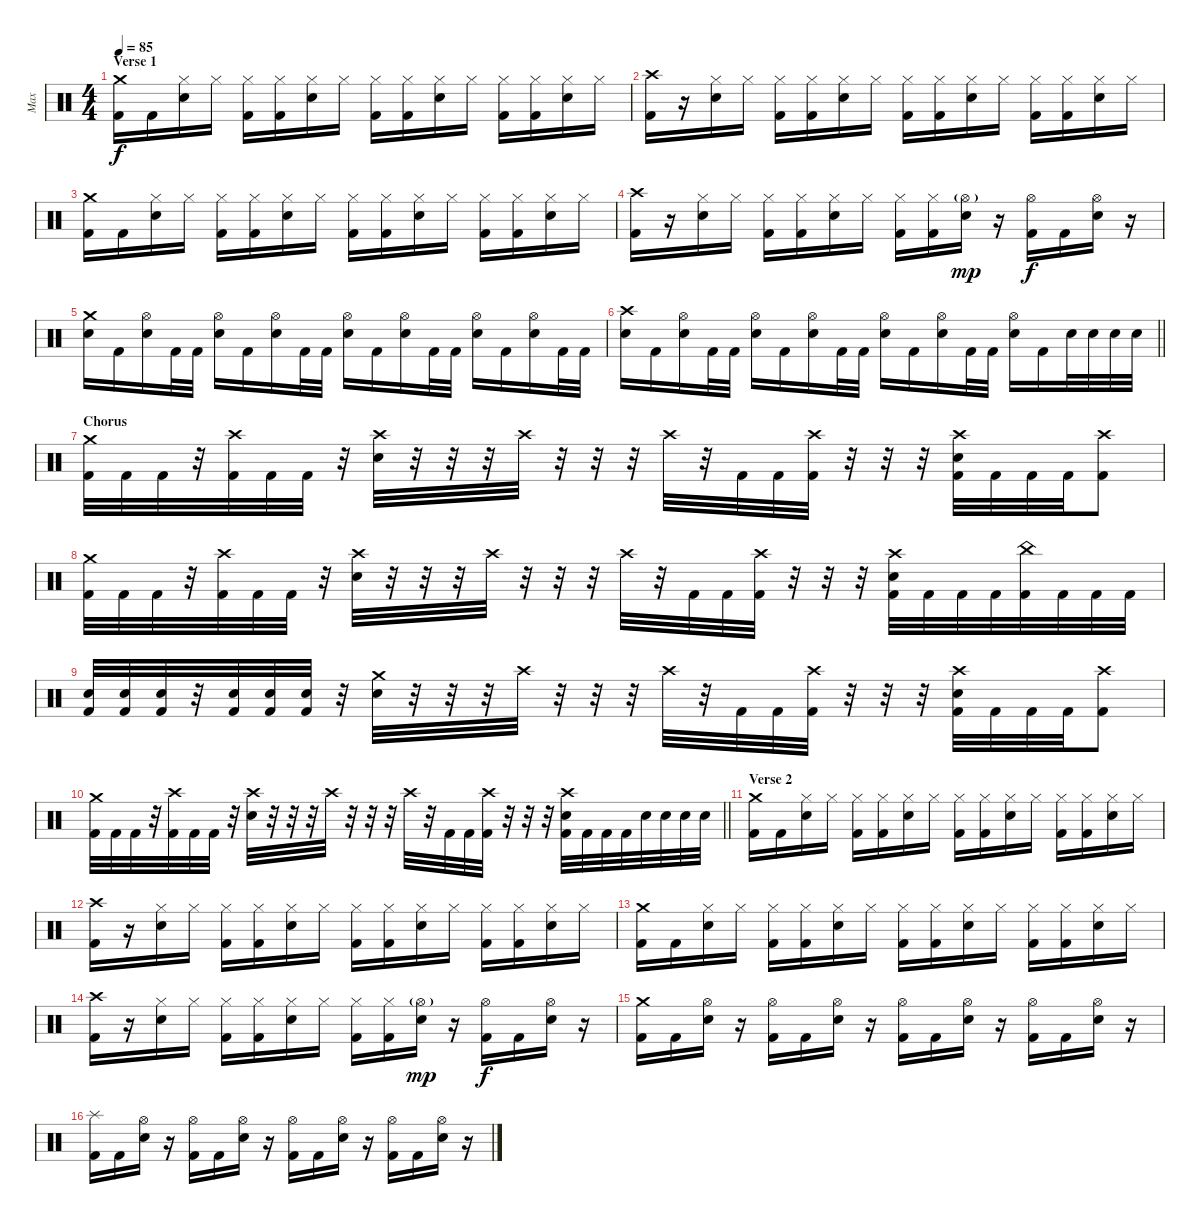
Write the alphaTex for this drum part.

\track ("Max" "Max") {instrument percussion}
\staff {score}
\articulation defaults
\ts (4 4)
\section ("" "Verse 1")
\tempo 85
\clef neutral
\ks c
("Crash medium (hit)" "Kick (hit) 2").16{dy f} "Kick (hit) 2".16 ("Hi-Hat (closed)" "Electric Snare (hit)").16 "Hi-Hat (closed)".16 ("Hi-Hat (closed)" "Kick (hit) 2").16 ("Hi-Hat (closed)" "Kick (hit) 2").16 ("Hi-Hat (closed)" "Electric Snare (hit)").16 "Hi-Hat (closed)".16 ("Hi-Hat (closed)" "Kick (hit) 2").16 ("Hi-Hat (closed)" "Kick (hit) 2").16 ("Hi-Hat (closed)" "Electric Snare (hit)").16 "Hi-Hat (closed)".16 ("Hi-Hat (closed)" "Kick (hit) 2").16 ("Hi-Hat (closed)" "Kick (hit) 2").16 ("Hi-Hat (closed)" "Electric Snare (hit)").16 "Hi-Hat (closed)".16 |
("Crash high (hit)" "Kick (hit) 2").16 r.16 ("Hi-Hat (closed)" "Electric Snare (hit)").16 "Hi-Hat (closed)".16 ("Hi-Hat (closed)" "Kick (hit) 2").16 ("Hi-Hat (closed)" "Kick (hit) 2").16 ("Hi-Hat (closed)" "Electric Snare (hit)").16 "Hi-Hat (closed)".16 ("Hi-Hat (closed)" "Kick (hit) 2").16 ("Hi-Hat (closed)" "Kick (hit) 2").16 ("Hi-Hat (closed)" "Electric Snare (hit)").16 "Hi-Hat (closed)".16 ("Hi-Hat (closed)" "Kick (hit) 2").16 ("Hi-Hat (closed)" "Kick (hit) 2").16 ("Hi-Hat (closed)" "Electric Snare (hit)").16 "Hi-Hat (closed)".16 |
("Crash medium (hit)" "Kick (hit) 2").16 "Kick (hit) 2".16 ("Hi-Hat (closed)" "Electric Snare (hit)").16 "Hi-Hat (closed)".16 ("Hi-Hat (closed)" "Kick (hit) 2").16 ("Hi-Hat (closed)" "Kick (hit) 2").16 ("Hi-Hat (closed)" "Electric Snare (hit)").16 "Hi-Hat (closed)".16 ("Hi-Hat (closed)" "Kick (hit) 2").16 ("Hi-Hat (closed)" "Kick (hit) 2").16 ("Hi-Hat (closed)" "Electric Snare (hit)").16 "Hi-Hat (closed)".16 ("Hi-Hat (closed)" "Kick (hit) 2").16 ("Hi-Hat (closed)" "Kick (hit) 2").16 ("Hi-Hat (closed)" "Electric Snare (hit)").16 "Hi-Hat (closed)".16 |
("Crash high (hit)" "Kick (hit) 2").16 r.16 ("Hi-Hat (closed)" "Electric Snare (hit)").16 "Hi-Hat (closed)".16 ("Hi-Hat (closed)" "Kick (hit) 2").16 ("Hi-Hat (closed)" "Kick (hit) 2").16 ("Hi-Hat (closed)" "Electric Snare (hit)").16 "Hi-Hat (closed)".16 ("Hi-Hat (closed)" "Kick (hit) 2").16 ("Hi-Hat (closed)" "Kick (hit) 2").16 ("Hi-Hat (open)"{g} "Electric Snare (hit)").16{dy mp} r.16 ("Hi-Hat (open)" "Kick (hit) 2").16{dy f} "Kick (hit) 2".16 ("Hi-Hat (open)" "Electric Snare (hit)").16 r.16 |
("Crash medium (hit)" "Electric Snare (hit)").16 "Kick (hit) 2".16 ("Hi-Hat (open)" "Electric Snare (hit)").16 "Kick (hit) 2".32 "Kick (hit) 2".32 ("Hi-Hat (open)" "Electric Snare (hit)").16 "Kick (hit) 2".16 ("Hi-Hat (open)" "Electric Snare (hit)").16 "Kick (hit) 2".32 "Kick (hit) 2".32 ("Hi-Hat (open)" "Electric Snare (hit)").16 "Kick (hit) 2".16 ("Hi-Hat (open)" "Electric Snare (hit)").16 "Kick (hit) 2".32 "Kick (hit) 2".32 ("Hi-Hat (open)" "Electric Snare (hit)").16 "Kick (hit) 2".16 ("Hi-Hat (open)" "Electric Snare (hit)").16 "Kick (hit) 2".32 "Kick (hit) 2".32 |
\barLineRight lightlight
("Crash high (hit)" "Electric Snare (hit)").16 "Kick (hit) 2".16 ("Hi-Hat (open)" "Electric Snare (hit)").16 "Kick (hit) 2".32 "Kick (hit) 2".32 ("Hi-Hat (open)" "Electric Snare (hit)").16 "Kick (hit) 2".16 ("Hi-Hat (open)" "Electric Snare (hit)").16 "Kick (hit) 2".32 "Kick (hit) 2".32 ("Hi-Hat (open)" "Electric Snare (hit)").16 "Kick (hit) 2".16 ("Hi-Hat (open)" "Electric Snare (hit)").16 "Kick (hit) 2".32 "Kick (hit) 2".32 ("Hi-Hat (open)" "Electric Snare (hit)").16 "Kick (hit) 2".16 "Electric Snare (hit)".32 "Electric Snare (hit)".32 "Electric Snare (hit)".32 "Electric Snare (hit)".32 |
\section ("" "Chorus")
("Crash medium (hit)" "Kick (hit) 2").32 "Kick (hit) 2".32 "Kick (hit) 2".32 r.32 ("Crash high (hit)" "Kick (hit) 2").32 "Kick (hit) 2".32 "Kick (hit) 2".32 r.32 ("Crash high (hit)" "Electric Snare (hit)").32 r.32 r.32 r.32 "Crash high (hit)".32 r.32 r.32 r.32 "Crash high (hit)".32 r.32 "Kick (hit) 2".32 "Kick (hit) 2".32 ("Crash high (hit)" "Kick (hit) 2").32 r.32 r.32 r.32 ("Crash high (hit)" "Electric Snare (hit)" "Kick (hit) 2").32 "Kick (hit) 2".32 "Kick (hit) 2".32 "Kick (hit) 2".32 ("Crash high (hit)" "Kick (hit) 2").8 |
("Crash medium (hit)" "Kick (hit) 2").32 "Kick (hit) 2".32 "Kick (hit) 2".32 r.32 ("Crash high (hit)" "Kick (hit) 2").32 "Kick (hit) 2".32 "Kick (hit) 2".32 r.32 ("Crash high (hit)" "Electric Snare (hit)").32 r.32 r.32 r.32 "Crash high (hit)".32 r.32 r.32 r.32 "Crash high (hit)".32 r.32 "Kick (hit) 2".32 "Kick (hit) 2".32 ("Crash high (hit)" "Kick (hit) 2").32 r.32 r.32 r.32 ("Crash high (hit)" "Electric Snare (hit)" "Kick (hit) 2").32 "Kick (hit) 2".32 "Kick (hit) 2".32 "Kick (hit) 2".32 ("China (hit)" "Kick (hit) 2").32 "Kick (hit) 2".32 "Kick (hit) 2".32 "Kick (hit) 2".32 |
("Electric Snare (hit)" "Kick (hit) 2").32 ("Electric Snare (hit)" "Kick (hit) 2").32 ("Electric Snare (hit)" "Kick (hit) 2").32 r.32 ("Electric Snare (hit)" "Kick (hit) 2").32 ("Electric Snare (hit)" "Kick (hit) 2").32 ("Electric Snare (hit)" "Kick (hit) 2").32 r.32 ("Crash medium (hit)" "Electric Snare (hit)").32 r.32 r.32 r.32 "Crash high (hit)".32 r.32 r.32 r.32 "Crash high (hit)".32 r.32 "Kick (hit) 2".32 "Kick (hit) 2".32 ("Crash high (hit)" "Kick (hit) 2").32 r.32 r.32 r.32 ("Crash high (hit)" "Electric Snare (hit)" "Kick (hit) 2").32 "Kick (hit) 2".32 "Kick (hit) 2".32 "Kick (hit) 2".32 ("Crash high (hit)" "Kick (hit) 2").8 |
\barLineRight lightlight
("Crash medium (hit)" "Kick (hit) 2").32 "Kick (hit) 2".32 "Kick (hit) 2".32 r.32 ("Crash high (hit)" "Kick (hit) 2").32 "Kick (hit) 2".32 "Kick (hit) 2".32 r.32 ("Crash high (hit)" "Electric Snare (hit)").32 r.32 r.32 r.32 "Crash high (hit)".32 r.32 r.32 r.32 "Crash high (hit)".32 r.32 "Kick (hit) 2".32 "Kick (hit) 2".32 ("Crash high (hit)" "Kick (hit) 2").32 r.32 r.32 r.32 ("Crash high (hit)" "Electric Snare (hit)" "Kick (hit) 2").32 "Kick (hit) 2".32 "Kick (hit) 2".32 "Kick (hit) 2".32 "Electric Snare (hit)".32 "Electric Snare (hit)".32 "Electric Snare (hit)".32 "Electric Snare (hit)".32 |
\section ("" "Verse 2")
("Crash medium (hit)" "Kick (hit) 2").16 "Kick (hit) 2".16 ("Hi-Hat (closed)" "Electric Snare (hit)").16 "Hi-Hat (closed)".16 ("Hi-Hat (closed)" "Kick (hit) 2").16 ("Hi-Hat (closed)" "Kick (hit) 2").16 ("Hi-Hat (closed)" "Electric Snare (hit)").16 "Hi-Hat (closed)".16 ("Hi-Hat (closed)" "Kick (hit) 2").16 ("Hi-Hat (closed)" "Kick (hit) 2").16 ("Hi-Hat (closed)" "Electric Snare (hit)").16 "Hi-Hat (closed)".16 ("Hi-Hat (closed)" "Kick (hit) 2").16 ("Hi-Hat (closed)" "Kick (hit) 2").16 ("Hi-Hat (closed)" "Electric Snare (hit)").16 "Hi-Hat (closed)".16 |
("Crash high (hit)" "Kick (hit) 2").16 r.16 ("Hi-Hat (closed)" "Electric Snare (hit)").16 "Hi-Hat (closed)".16 ("Hi-Hat (closed)" "Kick (hit) 2").16 ("Hi-Hat (closed)" "Kick (hit) 2").16 ("Hi-Hat (closed)" "Electric Snare (hit)").16 "Hi-Hat (closed)".16 ("Hi-Hat (closed)" "Kick (hit) 2").16 ("Hi-Hat (closed)" "Kick (hit) 2").16 ("Hi-Hat (closed)" "Electric Snare (hit)").16 "Hi-Hat (closed)".16 ("Hi-Hat (closed)" "Kick (hit) 2").16 ("Hi-Hat (closed)" "Kick (hit) 2").16 ("Hi-Hat (closed)" "Electric Snare (hit)").16 "Hi-Hat (closed)".16 |
("Crash medium (hit)" "Kick (hit) 2").16 "Kick (hit) 2".16 ("Hi-Hat (closed)" "Electric Snare (hit)").16 "Hi-Hat (closed)".16 ("Hi-Hat (closed)" "Kick (hit) 2").16 ("Hi-Hat (closed)" "Kick (hit) 2").16 ("Hi-Hat (closed)" "Electric Snare (hit)").16 "Hi-Hat (closed)".16 ("Hi-Hat (closed)" "Kick (hit) 2").16 ("Hi-Hat (closed)" "Kick (hit) 2").16 ("Hi-Hat (closed)" "Electric Snare (hit)").16 "Hi-Hat (closed)".16 ("Hi-Hat (closed)" "Kick (hit) 2").16 ("Hi-Hat (closed)" "Kick (hit) 2").16 ("Hi-Hat (closed)" "Electric Snare (hit)").16 "Hi-Hat (closed)".16 |
("Crash high (hit)" "Kick (hit) 2").16 r.16 ("Hi-Hat (closed)" "Electric Snare (hit)").16 "Hi-Hat (closed)".16 ("Hi-Hat (closed)" "Kick (hit) 2").16 ("Hi-Hat (closed)" "Kick (hit) 2").16 ("Hi-Hat (closed)" "Electric Snare (hit)").16 "Hi-Hat (closed)".16 ("Hi-Hat (closed)" "Kick (hit) 2").16 ("Hi-Hat (closed)" "Kick (hit) 2").16 ("Hi-Hat (open)"{g} "Electric Snare (hit)").16{dy mp} r.16 ("Hi-Hat (open)" "Kick (hit) 2").16{dy f} "Kick (hit) 2".16 ("Hi-Hat (open)" "Electric Snare (hit)").16 r.16 |
("Crash medium (hit)" "Kick (hit) 2").16 "Kick (hit) 2".16 ("Hi-Hat (open)" "Electric Snare (hit)").16 r.16 ("Hi-Hat (open)" "Kick (hit) 2").16 "Kick (hit) 2".16 ("Hi-Hat (open)" "Electric Snare (hit)").16 r.16 ("Hi-Hat (open)" "Kick (hit) 2").16 "Kick (hit) 2".16 ("Hi-Hat (open)" "Electric Snare (hit)").16 r.16 ("Hi-Hat (open)" "Kick (hit) 2").16 "Kick (hit) 2".16 ("Hi-Hat (open)" "Electric Snare (hit)").16 r.16 |
("Splash (hit)" "Kick (hit) 2").16 "Kick (hit) 2".16 ("Hi-Hat (open)" "Electric Snare (hit)").16 r.16 ("Hi-Hat (open)" "Kick (hit) 2").16 "Kick (hit) 2".16 ("Hi-Hat (open)" "Electric Snare (hit)").16 r.16 ("Hi-Hat (open)" "Kick (hit) 2").16 "Kick (hit) 2".16 ("Hi-Hat (open)" "Electric Snare (hit)").16 r.16 ("Hi-Hat (open)" "Kick (hit) 2").16 "Kick (hit) 2".16 ("Hi-Hat (open)" "Electric Snare (hit)").16 r.16
